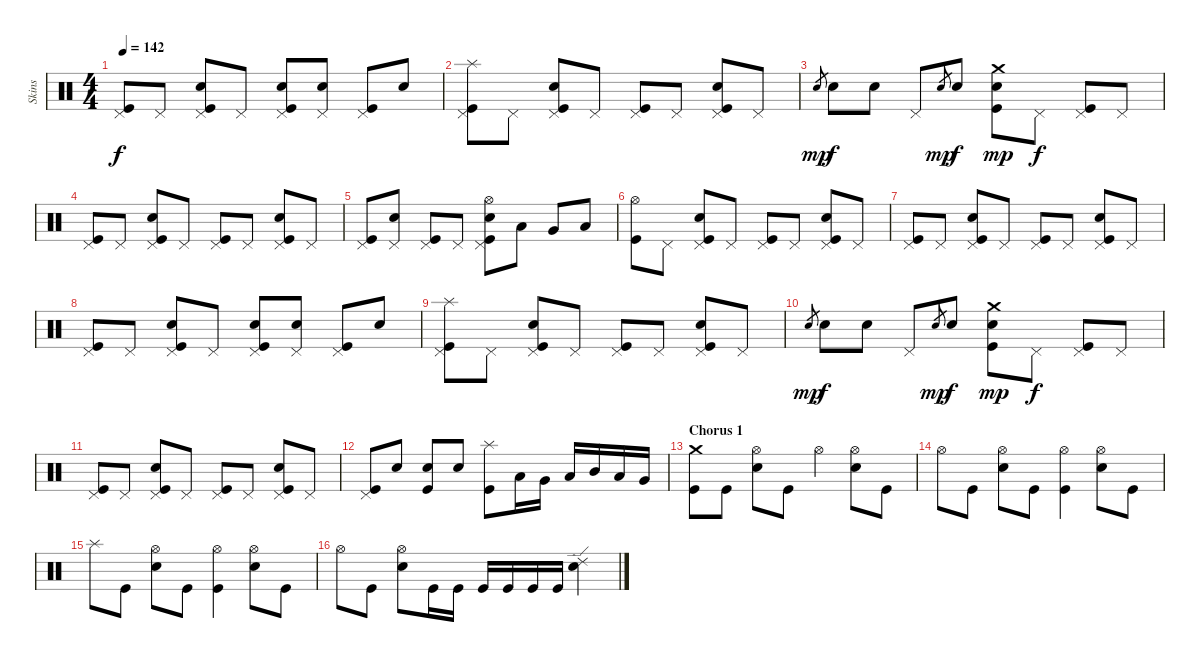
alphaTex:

\track ("Skins" "Skins") {instrument percussion}
\staff {score}
\articulation defaults
\ts (4 4)
\tempo 142
\clef neutral
\ks c
("Pedal Hi-Hat (hit)" "Kick (hit)").8{dy f} "Pedal Hi-Hat (hit)".8 ("Electric Snare (hit)" "Pedal Hi-Hat (hit)" "Kick (hit)").8 "Pedal Hi-Hat (hit)".8 ("Electric Snare (hit)" "Pedal Hi-Hat (hit)" "Kick (hit)").8 ("Electric Snare (hit)" "Pedal Hi-Hat (hit)").8 ("Pedal Hi-Hat (hit)" "Kick (hit)").8 "Snare (hit) 2".8 |
("Splash (hit)" "Pedal Hi-Hat (hit)" "Kick (hit)").8 "Pedal Hi-Hat (hit)".8 ("Electric Snare (hit)" "Pedal Hi-Hat (hit)" "Kick (hit)").8 "Pedal Hi-Hat (hit)".8 ("Pedal Hi-Hat (hit)" "Kick (hit)").8 "Pedal Hi-Hat (hit)".8 ("Snare (hit) 2" "Pedal Hi-Hat (hit)" "Kick (hit)").8 "Pedal Hi-Hat (hit)".8 |
"Snare (hit) 2".8{gr dy mp} "Snare (hit) 2".8{dy f} "Snare (hit) 2".8 "Pedal Hi-Hat (hit)".8 "Snare (hit) 2".8{gr dy mp} "Snare (hit) 2".8{dy f} ("Crash medium (hit)" "Electric Snare (hit)" "Kick (hit)").8{dy mp} "Pedal Hi-Hat (hit)".8{dy f} ("Pedal Hi-Hat (hit)" "Kick (hit)").8 "Pedal Hi-Hat (hit)".8 |
("Pedal Hi-Hat (hit)" "Kick (hit)").8 "Pedal Hi-Hat (hit)".8 ("Electric Snare (hit)" "Pedal Hi-Hat (hit)" "Kick (hit)").8 "Pedal Hi-Hat (hit)".8 ("Pedal Hi-Hat (hit)" "Kick (hit)").8 "Pedal Hi-Hat (hit)".8 ("Snare (hit) 2" "Pedal Hi-Hat (hit)" "Kick (hit)").8 "Pedal Hi-Hat (hit)".8 |
("Pedal Hi-Hat (hit)" "Kick (hit)").8 ("Snare (hit) 2" "Pedal Hi-Hat (hit)").8 ("Pedal Hi-Hat (hit)" "Kick (hit)").8 "Pedal Hi-Hat (hit)".8 ("Hi-Hat (open)" "Electric Snare (hit)" "Pedal Hi-Hat (hit)" "Kick (hit)").8 "Low Tom (hit)".8 "Very Low Tom (hit)".8 "Low Floor Tom (hit)".8 |
("Hi-Hat (open)" "Kick (hit)").8 "Pedal Hi-Hat (hit)".8 ("Electric Snare (hit)" "Pedal Hi-Hat (hit)" "Kick (hit)").8 "Pedal Hi-Hat (hit)".8 ("Pedal Hi-Hat (hit)" "Kick (hit)").8 "Pedal Hi-Hat (hit)".8 ("Snare (hit) 2" "Pedal Hi-Hat (hit)" "Kick (hit)").8 "Pedal Hi-Hat (hit)".8 |
("Pedal Hi-Hat (hit)" "Kick (hit)").8 "Pedal Hi-Hat (hit)".8 ("Electric Snare (hit)" "Pedal Hi-Hat (hit)" "Kick (hit)").8 "Pedal Hi-Hat (hit)".8 ("Pedal Hi-Hat (hit)" "Kick (hit)").8 "Pedal Hi-Hat (hit)".8 ("Snare (hit) 2" "Pedal Hi-Hat (hit)" "Kick (hit)").8 "Pedal Hi-Hat (hit)".8 |
("Pedal Hi-Hat (hit)" "Kick (hit)").8 "Pedal Hi-Hat (hit)".8 ("Electric Snare (hit)" "Pedal Hi-Hat (hit)" "Kick (hit)").8 "Pedal Hi-Hat (hit)".8 ("Electric Snare (hit)" "Pedal Hi-Hat (hit)" "Kick (hit)").8 ("Electric Snare (hit)" "Pedal Hi-Hat (hit)").8 ("Pedal Hi-Hat (hit)" "Kick (hit)").8 "Snare (hit) 2".8 |
("Splash (hit)" "Pedal Hi-Hat (hit)" "Kick (hit)").8 "Pedal Hi-Hat (hit)".8 ("Electric Snare (hit)" "Pedal Hi-Hat (hit)" "Kick (hit)").8 "Pedal Hi-Hat (hit)".8 ("Pedal Hi-Hat (hit)" "Kick (hit)").8 "Pedal Hi-Hat (hit)".8 ("Snare (hit) 2" "Pedal Hi-Hat (hit)" "Kick (hit)").8 "Pedal Hi-Hat (hit)".8 |
"Snare (hit) 2".8{gr dy mp} "Snare (hit) 2".8{dy f} "Snare (hit) 2".8 "Pedal Hi-Hat (hit)".8 "Snare (hit) 2".8{gr dy mp} "Snare (hit) 2".8{dy f} ("Crash medium (hit)" "Electric Snare (hit)" "Kick (hit)").8{dy mp} "Pedal Hi-Hat (hit)".8{dy f} ("Pedal Hi-Hat (hit)" "Kick (hit)").8 "Pedal Hi-Hat (hit)".8 |
("Pedal Hi-Hat (hit)" "Kick (hit)").8 "Pedal Hi-Hat (hit)".8 ("Electric Snare (hit)" "Pedal Hi-Hat (hit)" "Kick (hit)").8 "Pedal Hi-Hat (hit)".8 ("Pedal Hi-Hat (hit)" "Kick (hit)").8 "Pedal Hi-Hat (hit)".8 ("Snare (hit) 2" "Pedal Hi-Hat (hit)" "Kick (hit)").8 "Pedal Hi-Hat (hit)".8 |
("Pedal Hi-Hat (hit)" "Kick (hit)").8 "Snare (hit) 2".8 ("Electric Snare (hit)" "Kick (hit)").8 "Electric Snare (hit)".8 ("Splash (hit)" "Kick (hit)").8 "Low Tom (hit)".16 "Very Low Tom (hit)".16 "Low Floor Tom (hit)".16 "Mid Tom (hit)".16 "Low Tom (hit)".16 "Very Low Tom (hit)".16 |
\section ("" "Chorus 1")
("Crash medium (hit)" "Kick (hit)").8 "Kick (hit)".8 ("Hi-Hat (open)" "Electric Snare (hit)").8 "Kick (hit)".8 "Hi-Hat (open)".4 ("Hi-Hat (open)" "Electric Snare (hit)").8 "Kick (hit)".8 |
"Hi-Hat (open)".8 "Kick (hit)".8 ("Hi-Hat (open)" "Electric Snare (hit)").8 "Kick (hit)".8 ("Hi-Hat (open)" "Kick (hit)").4 ("Hi-Hat (open)" "Electric Snare (hit)").8 "Kick (hit)".8 |
"Splash (hit)".8 "Kick (hit)".8 ("Hi-Hat (open)" "Electric Snare (hit)").8 "Kick (hit)".8 ("Hi-Hat (open)" "Kick (hit)").4 ("Hi-Hat (open)" "Electric Snare (hit)").8 "Kick (hit)".8 |
"Hi-Hat (open)".8 "Kick (hit)".8 ("Hi-Hat (open)" "Electric Snare (hit)").8 "Kick (hit)".16 "Kick (hit)".16 "Kick (hit)".16 "Kick (hit)".16 "Kick (hit)".16 "Kick (hit)".16 ("Ride (edge) 2" "Snare (hit) 2").4
